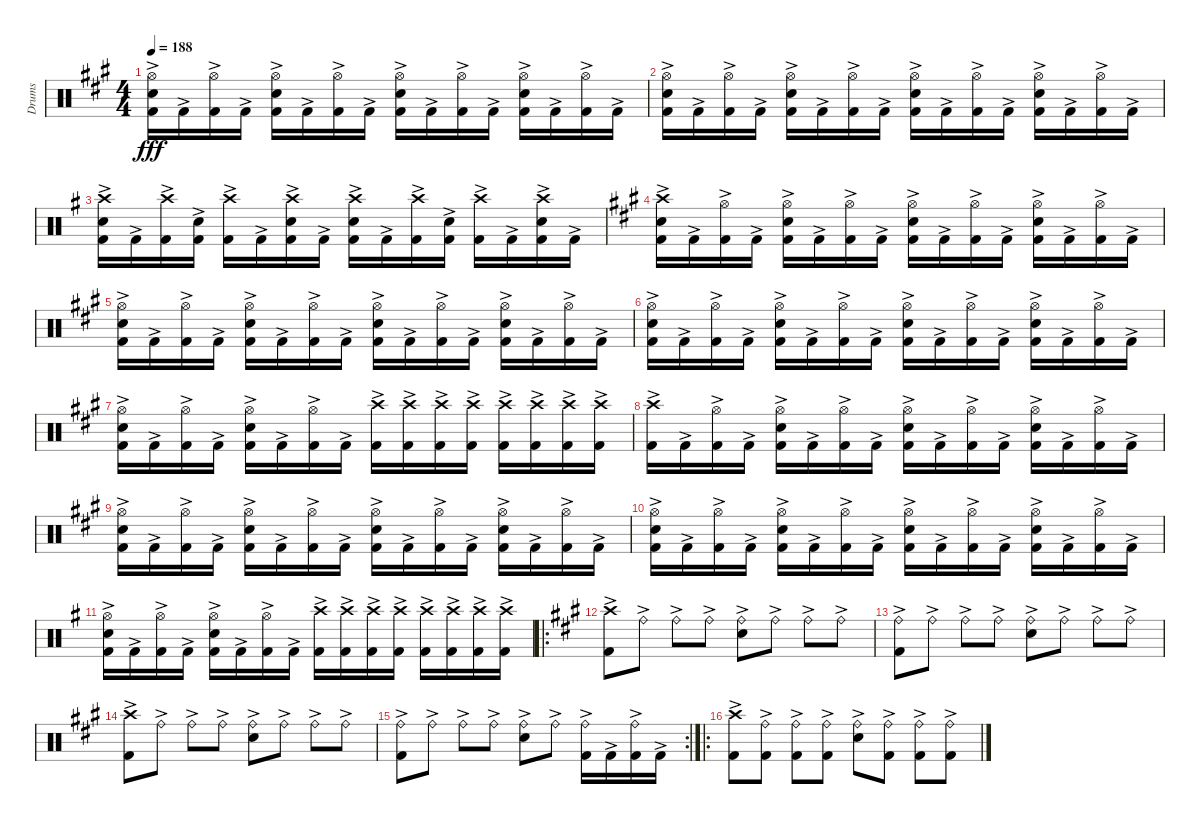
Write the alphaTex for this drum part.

\track ("Drums" "Drums") {instrument percussion}
\staff {score}
\articulation defaults
\ts (4 4)
\tempo 188
\clef neutral
\ks f#minor
("Hi-Hat (open)" "Snare (hit) 2" "Kick (hit) 2"{ac}).16{dy fff} "Kick (hit) 2"{ac}.16 ("Hi-Hat (open)" "Kick (hit) 2"{ac}).16 "Kick (hit) 2"{ac}.16 ("Hi-Hat (open)" "Snare (hit) 2" "Kick (hit) 2"{ac}).16 "Kick (hit) 2"{ac}.16 ("Hi-Hat (open)" "Kick (hit) 2"{ac}).16 "Kick (hit) 2"{ac}.16 ("Hi-Hat (open)" "Snare (hit) 2" "Kick (hit) 2"{ac}).16 "Kick (hit) 2"{ac}.16 ("Hi-Hat (open)" "Kick (hit) 2"{ac}).16 "Kick (hit) 2"{ac}.16 ("Hi-Hat (open)" "Snare (hit) 2" "Kick (hit) 2"{ac}).16 "Kick (hit) 2"{ac}.16 ("Hi-Hat (open)" "Kick (hit) 2"{ac}).16 "Kick (hit) 2"{ac}.16 |
("Hi-Hat (open)" "Snare (hit) 2" "Kick (hit) 2"{ac}).16 "Kick (hit) 2"{ac}.16 ("Hi-Hat (open)" "Kick (hit) 2"{ac}).16 "Kick (hit) 2"{ac}.16 ("Hi-Hat (open)" "Snare (hit) 2" "Kick (hit) 2"{ac}).16 "Kick (hit) 2"{ac}.16 ("Hi-Hat (open)" "Kick (hit) 2"{ac}).16 "Kick (hit) 2"{ac}.16 ("Hi-Hat (open)" "Snare (hit) 2" "Kick (hit) 2"{ac}).16 "Kick (hit) 2"{ac}.16 ("Hi-Hat (open)" "Kick (hit) 2"{ac}).16 "Kick (hit) 2"{ac}.16 ("Hi-Hat (open)" "Snare (hit) 2" "Kick (hit) 2"{ac}).16 "Kick (hit) 2"{ac}.16 ("Hi-Hat (open)" "Kick (hit) 2"{ac}).16 "Kick (hit) 2"{ac}.16 |
\ks eminor
("Crash high (hit)" "Snare (hit) 2" "Kick (hit) 2"{ac}).16 "Kick (hit) 2"{ac}.16 ("Crash high (hit)" "Kick (hit) 2"{ac}).16 ("Snare (hit) 2" "Kick (hit) 2"{ac}).16 ("Crash high (hit)" "Kick (hit) 2"{ac}).16 "Kick (hit) 2"{ac}.16 ("Crash high (hit)" "Snare (hit) 2" "Kick (hit) 2"{ac}).16 "Kick (hit) 2"{ac}.16 ("Crash high (hit)" "Snare (hit) 2" "Kick (hit) 2"{ac}).16 "Kick (hit) 2"{ac}.16 ("Crash high (hit)" "Kick (hit) 2"{ac}).16 ("Snare (hit) 2" "Kick (hit) 2"{ac}).16 ("Crash high (hit)" "Kick (hit) 2"{ac}).16 "Kick (hit) 2"{ac}.16 ("Crash high (hit)" "Snare (hit) 2" "Kick (hit) 2"{ac}).16 "Kick (hit) 2"{ac}.16 |
\ks f#minor
("Crash high (hit)" "Snare (hit) 2" "Kick (hit) 2"{ac}).16 "Kick (hit) 2"{ac}.16 ("Hi-Hat (open)" "Kick (hit) 2"{ac}).16 "Kick (hit) 2"{ac}.16 ("Hi-Hat (open)" "Snare (hit) 2" "Kick (hit) 2"{ac}).16 "Kick (hit) 2"{ac}.16 ("Hi-Hat (open)" "Kick (hit) 2"{ac}).16 "Kick (hit) 2"{ac}.16 ("Hi-Hat (open)" "Snare (hit) 2" "Kick (hit) 2"{ac}).16 "Kick (hit) 2"{ac}.16 ("Hi-Hat (open)" "Kick (hit) 2"{ac}).16 "Kick (hit) 2"{ac}.16 ("Hi-Hat (open)" "Snare (hit) 2" "Kick (hit) 2"{ac}).16 "Kick (hit) 2"{ac}.16 ("Hi-Hat (open)" "Kick (hit) 2"{ac}).16 "Kick (hit) 2"{ac}.16 |
("Hi-Hat (open)" "Snare (hit) 2" "Kick (hit) 2"{ac}).16 "Kick (hit) 2"{ac}.16 ("Hi-Hat (open)" "Kick (hit) 2"{ac}).16 "Kick (hit) 2"{ac}.16 ("Hi-Hat (open)" "Snare (hit) 2" "Kick (hit) 2"{ac}).16 "Kick (hit) 2"{ac}.16 ("Hi-Hat (open)" "Kick (hit) 2"{ac}).16 "Kick (hit) 2"{ac}.16 ("Hi-Hat (open)" "Snare (hit) 2" "Kick (hit) 2"{ac}).16 "Kick (hit) 2"{ac}.16 ("Hi-Hat (open)" "Kick (hit) 2"{ac}).16 "Kick (hit) 2"{ac}.16 ("Hi-Hat (open)" "Snare (hit) 2" "Kick (hit) 2"{ac}).16 "Kick (hit) 2"{ac}.16 ("Hi-Hat (open)" "Kick (hit) 2"{ac}).16 "Kick (hit) 2"{ac}.16 |
("Hi-Hat (open)" "Snare (hit) 2" "Kick (hit) 2"{ac}).16 "Kick (hit) 2"{ac}.16 ("Hi-Hat (open)" "Kick (hit) 2"{ac}).16 "Kick (hit) 2"{ac}.16 ("Hi-Hat (open)" "Snare (hit) 2" "Kick (hit) 2"{ac}).16 "Kick (hit) 2"{ac}.16 ("Hi-Hat (open)" "Kick (hit) 2"{ac}).16 "Kick (hit) 2"{ac}.16 ("Hi-Hat (open)" "Snare (hit) 2" "Kick (hit) 2"{ac}).16 "Kick (hit) 2"{ac}.16 ("Hi-Hat (open)" "Kick (hit) 2"{ac}).16 "Kick (hit) 2"{ac}.16 ("Hi-Hat (open)" "Snare (hit) 2" "Kick (hit) 2"{ac}).16 "Kick (hit) 2"{ac}.16 ("Hi-Hat (open)" "Kick (hit) 2"{ac}).16 "Kick (hit) 2"{ac}.16 |
("Hi-Hat (open)" "Snare (hit) 2" "Kick (hit) 2"{ac}).16 "Kick (hit) 2"{ac}.16 ("Hi-Hat (open)" "Kick (hit) 2"{ac}).16 "Kick (hit) 2"{ac}.16 ("Hi-Hat (open)" "Snare (hit) 2" "Kick (hit) 2"{ac}).16 "Kick (hit) 2"{ac}.16 ("Hi-Hat (open)" "Kick (hit) 2"{ac}).16 "Kick (hit) 2"{ac}.16 ("Crash high (hit)" "Kick (hit) 2"{ac}).16 ("Crash high (hit)" "Kick (hit) 2"{ac}).16 ("Crash high (hit)" "Kick (hit) 2"{ac}).16 ("Crash high (hit)" "Kick (hit) 2"{ac}).16 ("Crash high (hit)" "Kick (hit) 2"{ac}).16 ("Crash high (hit)" "Kick (hit) 2"{ac}).16 ("Crash high (hit)" "Kick (hit) 2"{ac}).16 ("Crash high (hit)" "Kick (hit) 2"{ac}).16 |
("Crash high (hit)" "Kick (hit) 2"{ac}).16 "Kick (hit) 2"{ac}.16 ("Hi-Hat (open)" "Kick (hit) 2"{ac}).16 "Kick (hit) 2"{ac}.16 ("Hi-Hat (open)" "Snare (hit) 2" "Kick (hit) 2"{ac}).16 "Kick (hit) 2"{ac}.16 ("Hi-Hat (open)" "Kick (hit) 2"{ac}).16 "Kick (hit) 2"{ac}.16 ("Hi-Hat (open)" "Snare (hit) 2" "Kick (hit) 2"{ac}).16 "Kick (hit) 2"{ac}.16 ("Hi-Hat (open)" "Kick (hit) 2"{ac}).16 "Kick (hit) 2"{ac}.16 ("Hi-Hat (open)" "Snare (hit) 2" "Kick (hit) 2"{ac}).16 "Kick (hit) 2"{ac}.16 ("Hi-Hat (open)" "Kick (hit) 2"{ac}).16 "Kick (hit) 2"{ac}.16 |
("Hi-Hat (open)" "Snare (hit) 2" "Kick (hit) 2"{ac}).16 "Kick (hit) 2"{ac}.16 ("Hi-Hat (open)" "Kick (hit) 2"{ac}).16 "Kick (hit) 2"{ac}.16 ("Hi-Hat (open)" "Snare (hit) 2" "Kick (hit) 2"{ac}).16 "Kick (hit) 2"{ac}.16 ("Hi-Hat (open)" "Kick (hit) 2"{ac}).16 "Kick (hit) 2"{ac}.16 ("Hi-Hat (open)" "Snare (hit) 2" "Kick (hit) 2"{ac}).16 "Kick (hit) 2"{ac}.16 ("Hi-Hat (open)" "Kick (hit) 2"{ac}).16 "Kick (hit) 2"{ac}.16 ("Hi-Hat (open)" "Snare (hit) 2" "Kick (hit) 2"{ac}).16 "Kick (hit) 2"{ac}.16 ("Hi-Hat (open)" "Kick (hit) 2"{ac}).16 "Kick (hit) 2"{ac}.16 |
("Hi-Hat (open)" "Snare (hit) 2" "Kick (hit) 2"{ac}).16 "Kick (hit) 2"{ac}.16 ("Hi-Hat (open)" "Kick (hit) 2"{ac}).16 "Kick (hit) 2"{ac}.16 ("Hi-Hat (open)" "Snare (hit) 2" "Kick (hit) 2"{ac}).16 "Kick (hit) 2"{ac}.16 ("Hi-Hat (open)" "Kick (hit) 2"{ac}).16 "Kick (hit) 2"{ac}.16 ("Hi-Hat (open)" "Snare (hit) 2" "Kick (hit) 2"{ac}).16 "Kick (hit) 2"{ac}.16 ("Hi-Hat (open)" "Kick (hit) 2"{ac}).16 "Kick (hit) 2"{ac}.16 ("Hi-Hat (open)" "Snare (hit) 2" "Kick (hit) 2"{ac}).16 "Kick (hit) 2"{ac}.16 ("Hi-Hat (open)" "Kick (hit) 2"{ac}).16 "Kick (hit) 2"{ac}.16 |
\ks eminor
("Hi-Hat (open)" "Snare (hit) 2" "Kick (hit) 2"{ac}).16 "Kick (hit) 2"{ac}.16 ("Hi-Hat (open)" "Kick (hit) 2"{ac}).16 "Kick (hit) 2"{ac}.16 ("Hi-Hat (open)" "Snare (hit) 2" "Kick (hit) 2"{ac}).16 "Kick (hit) 2"{ac}.16 ("Hi-Hat (open)" "Kick (hit) 2"{ac}).16 "Kick (hit) 2"{ac}.16 ("Crash high (hit)" "Kick (hit) 2"{ac}).16 ("Crash high (hit)" "Kick (hit) 2"{ac}).16 ("Crash high (hit)" "Kick (hit) 2"{ac}).16 ("Crash high (hit)" "Kick (hit) 2"{ac}).16 ("Crash high (hit)" "Kick (hit) 2"{ac}).16 ("Crash high (hit)" "Kick (hit) 2"{ac}).16 ("Crash high (hit)" "Kick (hit) 2"{ac}).16 ("Crash high (hit)" "Kick (hit) 2"{ac}).16 |
\ro
\ks f#minor
("Crash high (hit)" "Kick (hit) 2"{ac}).8{volume 16} "Ride (bell)"{ac}.8 "Ride (bell)"{ac}.8 "Ride (bell)"{ac}.8 ("Ride (bell)"{ac} "Snare (hit) 2").8 "Ride (bell)"{ac}.8 "Ride (bell)"{ac}.8 "Ride (bell)"{ac}.8 |
("Ride (bell)"{ac} "Kick (hit) 2"{ac}).8 "Ride (bell)"{ac}.8 "Ride (bell)"{ac}.8 "Ride (bell)"{ac}.8 ("Ride (bell)"{ac} "Snare (hit) 2").8 "Ride (bell)"{ac}.8 "Ride (bell)"{ac}.8 "Ride (bell)"{ac}.8 |
("Crash high (hit)" "Kick (hit) 2"{ac}).8 "Ride (bell)"{ac}.8 "Ride (bell)"{ac}.8 "Ride (bell)"{ac}.8 ("Ride (bell)"{ac} "Snare (hit) 2").8 "Ride (bell)"{ac}.8 "Ride (bell)"{ac}.8 "Ride (bell)"{ac}.8 |
\rc 2
("Ride (bell)"{ac} "Kick (hit) 2"{ac}).8 "Ride (bell)"{ac}.8 "Ride (bell)"{ac}.8 "Ride (bell)"{ac}.8 ("Ride (bell)"{ac} "Snare (hit) 2").8 "Ride (bell)"{ac}.8 ("Ride (bell)"{ac} "Kick (hit) 2"{ac}).16 "Kick (hit) 2"{ac}.16 ("Ride (bell)"{ac} "Kick (hit) 2"{ac}).16 "Kick (hit) 2"{ac}.16 |
\ro
("Crash high (hit)" "Kick (hit) 2"{ac}).8 ("Ride (bell)"{ac} "Kick (hit) 2"{ac}).8 ("Ride (bell)"{ac} "Kick (hit) 2"{ac}).8 ("Ride (bell)"{ac} "Kick (hit) 2"{ac}).8 ("Ride (bell)"{ac} "Snare (hit) 2").8 ("Ride (bell)"{ac} "Kick (hit) 2"{ac}).8 ("Ride (bell)"{ac} "Kick (hit) 2"{ac}).8 ("Ride (bell)"{ac} "Kick (hit) 2"{ac}).8
